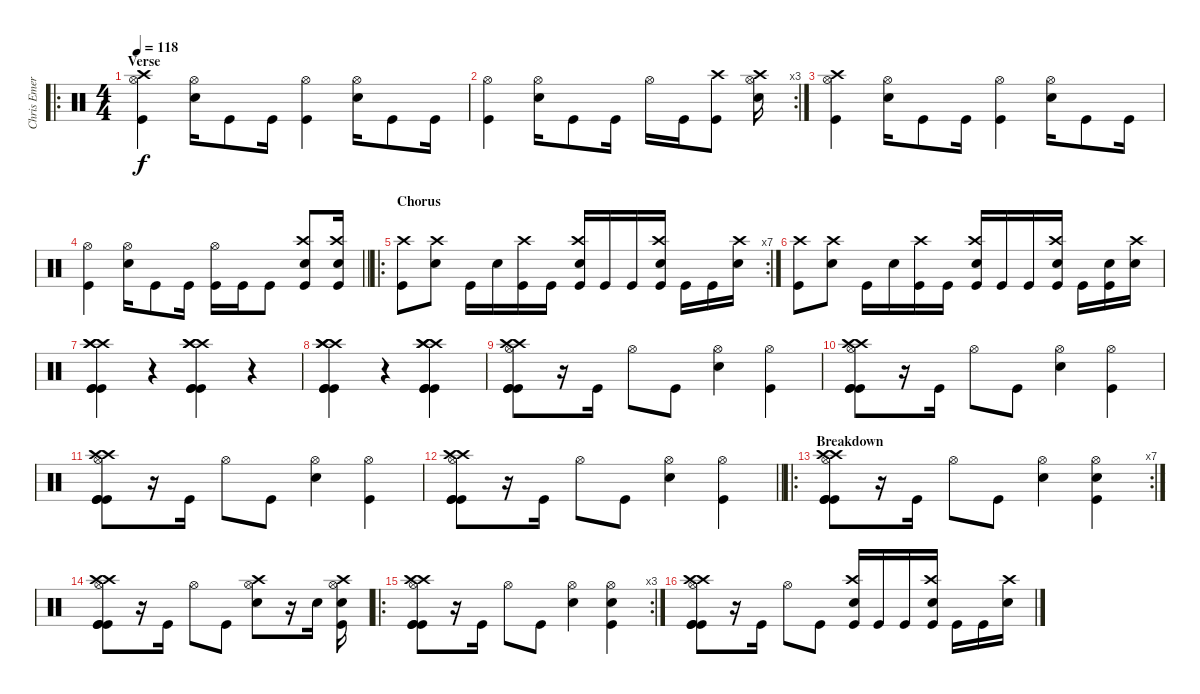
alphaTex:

\track ("Chris Emery" "Chris Emer") {instrument percussion}
\staff {score}
\articulation defaults
\ro
\ts (4 4)
\section ("" "Verse")
\tempo 118
\clef neutral
\ks c
("Hi-Hat (open)" "Kick (hit)" "Crash high (hit)").4{dy f} ("Snare (hit) 2" "Hi-Hat (open)").16 "Kick (hit)".8 "Kick (hit)".16 ("Hi-Hat (open)" "Kick (hit)").4 ("Snare (hit) 2" "Hi-Hat (open)").16 "Kick (hit)".8 "Kick (hit)".16 |
\rc 3
("Hi-Hat (open)" "Kick (hit)").4 ("Snare (hit) 2" "Hi-Hat (open)").16 "Kick (hit)".8 "Kick (hit)".16 "Hi-Hat (open)".16 "Kick (hit)".16 ("Kick (hit)" "Crash high (hit)").8 ("Snare (hit) 2" "Hi-Hat (open)" "Crash high (hit)").16 |
("Hi-Hat (open)" "Kick (hit)" "Crash high (hit)").4 ("Snare (hit) 2" "Hi-Hat (open)").16 "Kick (hit)".8 "Kick (hit)".16 ("Hi-Hat (open)" "Kick (hit)").4 ("Snare (hit) 2" "Hi-Hat (open)").16 "Kick (hit)".8 "Kick (hit)".16 |
\barLineRight lightlight
("Hi-Hat (open)" "Kick (hit)").4 ("Snare (hit) 2" "Hi-Hat (open)").16 "Kick (hit)".8 "Kick (hit)".16 ("Hi-Hat (open)" "Kick (hit)").16 "Kick (hit)".16 "Kick (hit)".8 ("Kick (hit)" "Crash high (hit)" "Snare (hit) 2").8 ("Snare (hit) 2" "Kick (hit)" "Crash high (hit)").16 |
\ro
\rc 7
\section ("" "Chorus")
("Crash high (hit)" "Kick (hit)").8 ("Snare (hit) 2" "Crash high (hit)").8 "Kick (hit)".16 "Snare (hit) 2".16 ("Kick (hit)" "Crash high (hit)").16 "Kick (hit)".16 ("Kick (hit)" "Snare (hit) 2" "Crash high (hit)").16 "Kick (hit)".16 "Kick (hit)".16 ("Kick (hit)" "Snare (hit) 2" "Crash high (hit)").16 "Kick (hit)".16 "Kick (hit)".16 ("Snare (hit) 2" "Crash high (hit)").16 |
("Crash high (hit)" "Kick (hit)").8 ("Snare (hit) 2" "Crash high (hit)").8 "Kick (hit)".16 "Snare (hit) 2".16 ("Kick (hit)" "Crash high (hit)").16 "Kick (hit)".16 ("Kick (hit)" "Snare (hit) 2" "Crash high (hit)").16 "Kick (hit)".16 "Kick (hit)".16 ("Kick (hit)" "Snare (hit) 2" "Crash high (hit)").16 "Kick (hit)".16 ("Kick (hit)" "Snare (hit) 2").16 ("Snare (hit) 2" "Crash high (hit)").16 |
("Kick (hit)" "Kick (hit)" "Kick (hit)" "Crash high (hit)" "Crash high (hit)" "Crash high (hit)").4 r.4 ("Kick (hit)" "Kick (hit)" "Kick (hit)" "Crash high (hit)" "Crash high (hit)" "Crash high (hit)").4 r.4 |
("Kick (hit)" "Kick (hit)" "Kick (hit)" "Crash high (hit)" "Crash high (hit)" "Crash high (hit)").4 r.4 ("Kick (hit)" "Kick (hit)" "Kick (hit)" "Crash high (hit)" "Crash high (hit)" "Crash high (hit)").4 |
("Kick (hit)" "Crash high (hit)" "Kick (hit)" "Kick (hit)" "Crash high (hit)" "Hi-Hat (open)").8 r.16 "Kick (hit)".16 "Hi-Hat (open)".8 "Kick (hit)".8 ("Hi-Hat (open)" "Snare (hit) 2").4 ("Kick (hit)" "Hi-Hat (open)").4 |
("Kick (hit)" "Crash high (hit)" "Kick (hit)" "Kick (hit)" "Crash high (hit)" "Hi-Hat (open)").8 r.16 "Kick (hit)".16 "Hi-Hat (open)".8 "Kick (hit)".8 ("Hi-Hat (open)" "Snare (hit) 2").4 ("Kick (hit)" "Hi-Hat (open)").4 |
("Kick (hit)" "Crash high (hit)" "Kick (hit)" "Kick (hit)" "Crash high (hit)" "Hi-Hat (open)").8 r.16 "Kick (hit)".16 "Hi-Hat (open)".8 "Kick (hit)".8 ("Hi-Hat (open)" "Snare (hit) 2").4 ("Kick (hit)" "Hi-Hat (open)").4 |
\barLineRight lightlight
("Kick (hit)" "Crash high (hit)" "Kick (hit)" "Kick (hit)" "Crash high (hit)" "Hi-Hat (open)").8 r.16 "Kick (hit)".16 "Hi-Hat (open)".8 "Kick (hit)".8 ("Hi-Hat (open)" "Snare (hit) 2").4 ("Kick (hit)" "Hi-Hat (open)").4 |
\ro
\rc 7
\section ("" "Breakdown")
("Kick (hit)" "Crash high (hit)" "Kick (hit)" "Kick (hit)" "Crash high (hit)" "Hi-Hat (open)").8 r.16 "Kick (hit)".16 "Hi-Hat (open)".8 "Kick (hit)".8 ("Hi-Hat (open)" "Snare (hit) 2").4 ("Kick (hit)" "Hi-Hat (open)" "Snare (hit) 2").4 |
("Kick (hit)" "Crash high (hit)" "Kick (hit)" "Kick (hit)" "Crash high (hit)" "Hi-Hat (open)").8 r.16 "Kick (hit)".16 "Hi-Hat (open)".8 "Kick (hit)".8 ("Hi-Hat (open)" "Snare (hit) 2" "Crash high (hit)").8 r.16 "Snare (hit) 2".16 ("Kick (hit)" "Hi-Hat (open)" "Snare (hit) 2" "Crash high (hit)").16 |
\ro
\rc 3
("Kick (hit)" "Crash high (hit)" "Kick (hit)" "Kick (hit)" "Crash high (hit)" "Hi-Hat (open)").8 r.16 "Kick (hit)".16 "Hi-Hat (open)".8 "Kick (hit)".8 ("Hi-Hat (open)" "Snare (hit) 2").4 ("Kick (hit)" "Hi-Hat (open)" "Snare (hit) 2").4 |
("Kick (hit)" "Crash high (hit)" "Kick (hit)" "Kick (hit)" "Crash high (hit)" "Hi-Hat (open)").8 r.16 "Kick (hit)".16 "Hi-Hat (open)".8 "Kick (hit)".8 ("Kick (hit)" "Snare (hit) 2" "Crash high (hit)").16 "Kick (hit)".16 "Kick (hit)".16 ("Kick (hit)" "Snare (hit) 2" "Crash high (hit)").16 "Kick (hit)".16 "Kick (hit)".16 ("Snare (hit) 2" "Crash high (hit)").16
